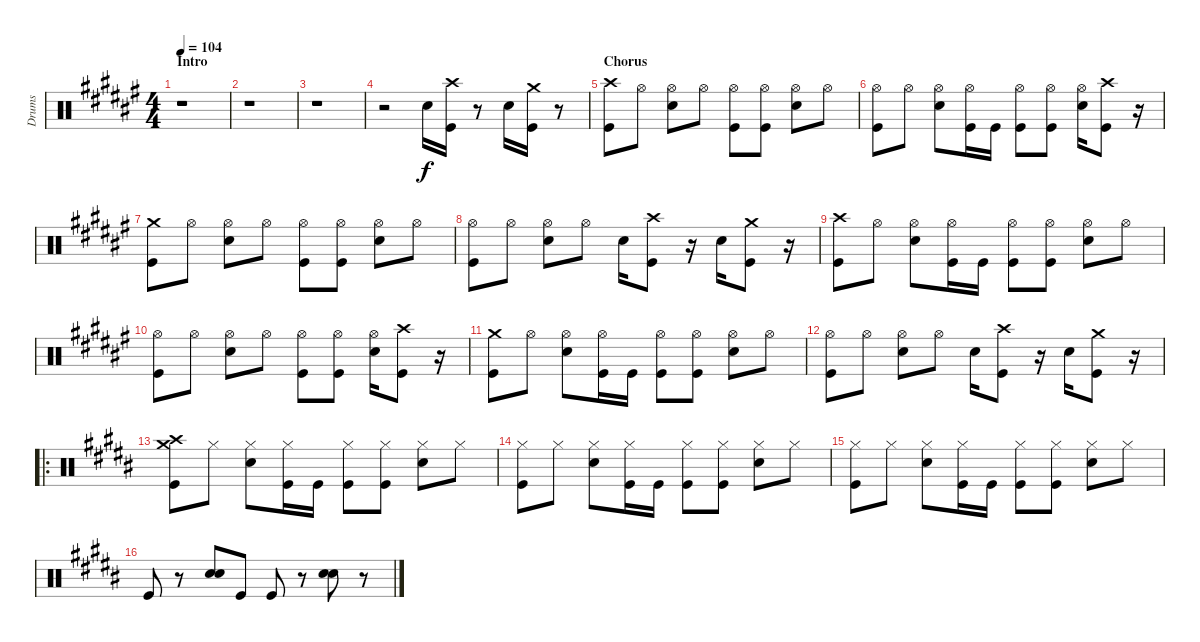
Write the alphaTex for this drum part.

\track ("Drums" "Drums") {instrument percussion}
\staff {score}
\articulation defaults
\ts (4 4)
\section ("" "Intro")
\tempo 104
\clef neutral
\ks f#
r.1{dy f} |
r.1 |
r.1 |
r.2 "Snare (hit) 2".16 ("Crash high (hit)" "Kick (hit)").16 r.8 "Snare (hit) 2".16 ("Crash medium (hit)" "Kick (hit)").16 r.8 |
\section ("" "Chorus")
("Crash high (hit)" "Kick (hit)").8 "Hi-Hat (open)".8 ("Hi-Hat (open)" "Snare (hit) 2").8 "Hi-Hat (open)".8 ("Hi-Hat (open)" "Kick (hit)").8 ("Hi-Hat (open)" "Kick (hit)").8 ("Hi-Hat (open)" "Snare (hit) 2").8 "Hi-Hat (open)".8 |
("Hi-Hat (open)" "Kick (hit)").8 "Hi-Hat (open)".8 ("Hi-Hat (open)" "Snare (hit) 2").8 ("Hi-Hat (open)" "Kick (hit)").16 "Kick (hit)".16 ("Hi-Hat (open)" "Kick (hit)").8 ("Hi-Hat (open)" "Kick (hit)").8 ("Hi-Hat (open)" "Snare (hit) 2").16 ("Crash high (hit)" "Kick (hit)").8 r.16 |
("Crash medium (hit)" "Kick (hit)").8 "Hi-Hat (open)".8 ("Hi-Hat (open)" "Snare (hit) 2").8 "Hi-Hat (open)".8 ("Hi-Hat (open)" "Kick (hit)").8 ("Hi-Hat (open)" "Kick (hit)").8 ("Hi-Hat (open)" "Snare (hit) 2").8 "Hi-Hat (open)".8 |
("Hi-Hat (open)" "Kick (hit)").8 "Hi-Hat (open)".8 ("Hi-Hat (open)" "Snare (hit) 2").8 "Hi-Hat (open)".8 "Snare (hit) 2".16 ("Crash high (hit)" "Kick (hit)").8 r.16 "Snare (hit) 2".16 ("Crash medium (hit)" "Kick (hit)").8 r.16 |
("Crash high (hit)" "Kick (hit)").8 "Hi-Hat (open)".8 ("Hi-Hat (open)" "Snare (hit) 2").8 ("Hi-Hat (open)" "Kick (hit)").16 "Kick (hit)".16 ("Hi-Hat (open)" "Kick (hit)").8 ("Hi-Hat (open)" "Kick (hit)").8 ("Hi-Hat (open)" "Snare (hit) 2").8 "Hi-Hat (open)".8 |
("Hi-Hat (open)" "Kick (hit)").8 "Hi-Hat (open)".8 ("Hi-Hat (open)" "Snare (hit) 2").8 "Hi-Hat (open)".8 ("Hi-Hat (open)" "Kick (hit)").8 ("Hi-Hat (open)" "Kick (hit)").8 ("Hi-Hat (open)" "Snare (hit) 2").16 ("Crash high (hit)" "Kick (hit)").8 r.16 |
("Crash medium (hit)" "Kick (hit)").8 "Hi-Hat (open)".8 ("Hi-Hat (open)" "Snare (hit) 2").8 ("Hi-Hat (open)" "Kick (hit)").16 "Kick (hit)".16 ("Hi-Hat (open)" "Kick (hit)").8 ("Hi-Hat (open)" "Kick (hit)").8 ("Hi-Hat (open)" "Snare (hit) 2").8 "Hi-Hat (open)".8 |
("Hi-Hat (open)" "Kick (hit)").8 "Hi-Hat (open)".8 ("Hi-Hat (open)" "Snare (hit) 2").8 "Hi-Hat (open)".8 "Snare (hit) 2".16 ("Crash high (hit)" "Kick (hit)").8 r.16 "Snare (hit) 2".16 ("Crash medium (hit)" "Kick (hit)").8 r.16 |
\ro
\ks b
("Crash medium (hit)" "Crash high (hit)" "Kick (hit)").8 "Hi-Hat (closed)".8 ("Hi-Hat (closed)" "Snare (hit) 2").8 ("Hi-Hat (closed)" "Kick (hit)").16 "Kick (hit)".16 ("Hi-Hat (closed)" "Kick (hit)").8 ("Hi-Hat (closed)" "Kick (hit)").8 ("Hi-Hat (closed)" "Snare (hit) 2").8 "Hi-Hat (closed)".8 |
("Hi-Hat (closed)" "Kick (hit)").8 "Hi-Hat (closed)".8 ("Hi-Hat (closed)" "Snare (hit) 2").8 ("Hi-Hat (closed)" "Kick (hit)").16 "Kick (hit)".16 ("Hi-Hat (closed)" "Kick (hit)").8 ("Hi-Hat (closed)" "Kick (hit)").8 ("Hi-Hat (closed)" "Snare (hit) 2").8 "Hi-Hat (closed)".8 |
("Hi-Hat (closed)" "Kick (hit)").8 "Hi-Hat (closed)".8 ("Hi-Hat (closed)" "Snare (hit) 2").8 ("Hi-Hat (closed)" "Kick (hit)").16 "Kick (hit)".16 ("Hi-Hat (closed)" "Kick (hit)").8 ("Hi-Hat (closed)" "Kick (hit)").8 ("Hi-Hat (closed)" "Snare (hit) 2").8 "Hi-Hat (closed)".8 |
"Kick (hit)".8 r.8 ("Snare (hit) 2" "Snare (hit) 2").8 "Kick (hit)".8 "Kick (hit)".8 r.8 ("Snare (hit) 2" "Snare (hit) 2").8 r.8
